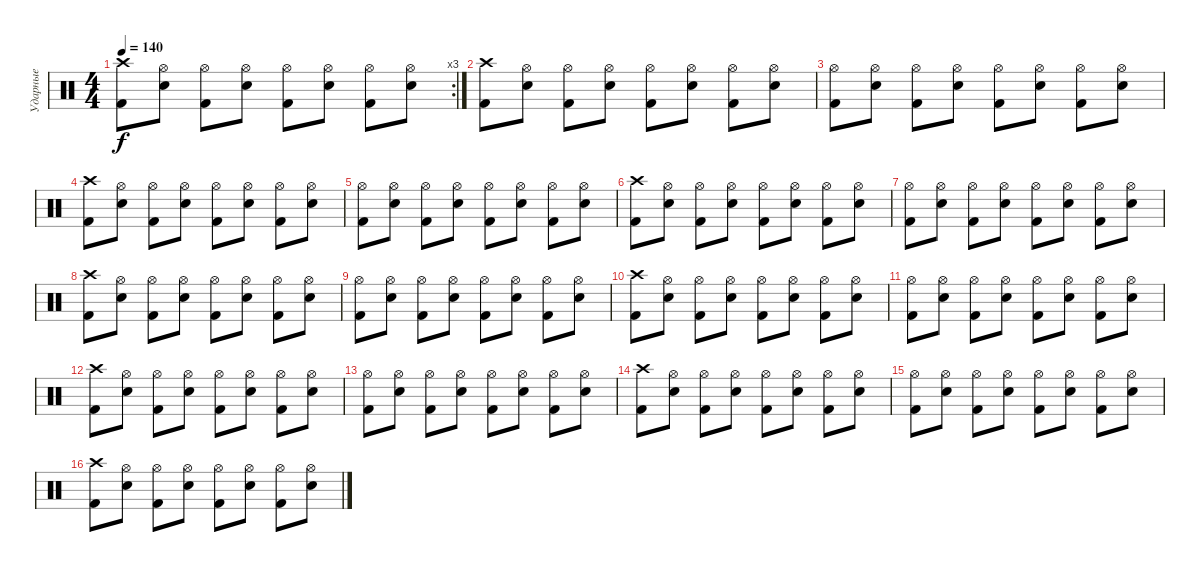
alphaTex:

\track ("Ударные" "Ударные") {instrument percussion}
\staff {score}
\articulation defaults
\rc 3
\ts (4 4)
\tempo 140
\clef neutral
\ks c
("Kick (hit) 2" "Crash high (hit)").8{dy f} ("Electric Snare (hit)" "Hi-Hat (open)").8 ("Kick (hit) 2" "Hi-Hat (open)").8 ("Electric Snare (hit)" "Hi-Hat (open)").8 ("Kick (hit) 2" "Hi-Hat (open)").8 ("Electric Snare (hit)" "Hi-Hat (open)").8 ("Kick (hit) 2" "Hi-Hat (open)").8 ("Electric Snare (hit)" "Hi-Hat (open)").8 |
("Kick (hit) 2" "Crash high (hit)").8 ("Electric Snare (hit)" "Hi-Hat (open)").8 ("Kick (hit) 2" "Hi-Hat (open)").8 ("Electric Snare (hit)" "Hi-Hat (open)").8 ("Kick (hit) 2" "Hi-Hat (open)").8 ("Electric Snare (hit)" "Hi-Hat (open)").8 ("Kick (hit) 2" "Hi-Hat (open)").8 ("Electric Snare (hit)" "Hi-Hat (open)").8 |
("Kick (hit) 2" "Hi-Hat (open)").8 ("Electric Snare (hit)" "Hi-Hat (open)").8 ("Kick (hit) 2" "Hi-Hat (open)").8 ("Electric Snare (hit)" "Hi-Hat (open)").8 ("Kick (hit) 2" "Hi-Hat (open)").8 ("Electric Snare (hit)" "Hi-Hat (open)").8 ("Kick (hit) 2" "Hi-Hat (open)").8 ("Electric Snare (hit)" "Hi-Hat (open)").8 |
("Kick (hit) 2" "Crash high (hit)").8 ("Electric Snare (hit)" "Hi-Hat (open)").8 ("Kick (hit) 2" "Hi-Hat (open)").8 ("Electric Snare (hit)" "Hi-Hat (open)").8 ("Kick (hit) 2" "Hi-Hat (open)").8 ("Electric Snare (hit)" "Hi-Hat (open)").8 ("Kick (hit) 2" "Hi-Hat (open)").8 ("Electric Snare (hit)" "Hi-Hat (open)").8 |
("Kick (hit) 2" "Hi-Hat (open)").8 ("Electric Snare (hit)" "Hi-Hat (open)").8 ("Kick (hit) 2" "Hi-Hat (open)").8 ("Electric Snare (hit)" "Hi-Hat (open)").8 ("Kick (hit) 2" "Hi-Hat (open)").8 ("Electric Snare (hit)" "Hi-Hat (open)").8 ("Kick (hit) 2" "Hi-Hat (open)").8 ("Electric Snare (hit)" "Hi-Hat (open)").8 |
("Kick (hit) 2" "Crash high (hit)").8 ("Electric Snare (hit)" "Hi-Hat (open)").8 ("Kick (hit) 2" "Hi-Hat (open)").8 ("Electric Snare (hit)" "Hi-Hat (open)").8 ("Kick (hit) 2" "Hi-Hat (open)").8 ("Electric Snare (hit)" "Hi-Hat (open)").8 ("Kick (hit) 2" "Hi-Hat (open)").8 ("Electric Snare (hit)" "Hi-Hat (open)").8 |
("Kick (hit) 2" "Hi-Hat (open)").8 ("Electric Snare (hit)" "Hi-Hat (open)").8 ("Kick (hit) 2" "Hi-Hat (open)").8 ("Electric Snare (hit)" "Hi-Hat (open)").8 ("Kick (hit) 2" "Hi-Hat (open)").8 ("Electric Snare (hit)" "Hi-Hat (open)").8 ("Kick (hit) 2" "Hi-Hat (open)").8 ("Electric Snare (hit)" "Hi-Hat (open)").8 |
("Kick (hit) 2" "Crash high (hit)").8 ("Electric Snare (hit)" "Hi-Hat (open)").8 ("Kick (hit) 2" "Hi-Hat (open)").8 ("Electric Snare (hit)" "Hi-Hat (open)").8 ("Kick (hit) 2" "Hi-Hat (open)").8 ("Electric Snare (hit)" "Hi-Hat (open)").8 ("Kick (hit) 2" "Hi-Hat (open)").8 ("Electric Snare (hit)" "Hi-Hat (open)").8 |
("Kick (hit) 2" "Hi-Hat (open)").8 ("Electric Snare (hit)" "Hi-Hat (open)").8 ("Kick (hit) 2" "Hi-Hat (open)").8 ("Electric Snare (hit)" "Hi-Hat (open)").8 ("Kick (hit) 2" "Hi-Hat (open)").8 ("Electric Snare (hit)" "Hi-Hat (open)").8 ("Kick (hit) 2" "Hi-Hat (open)").8 ("Electric Snare (hit)" "Hi-Hat (open)").8 |
("Kick (hit) 2" "Crash high (hit)").8 ("Electric Snare (hit)" "Hi-Hat (open)").8 ("Kick (hit) 2" "Hi-Hat (open)").8 ("Electric Snare (hit)" "Hi-Hat (open)").8 ("Kick (hit) 2" "Hi-Hat (open)").8 ("Electric Snare (hit)" "Hi-Hat (open)").8 ("Kick (hit) 2" "Hi-Hat (open)").8 ("Electric Snare (hit)" "Hi-Hat (open)").8 |
("Kick (hit) 2" "Hi-Hat (open)").8 ("Electric Snare (hit)" "Hi-Hat (open)").8 ("Kick (hit) 2" "Hi-Hat (open)").8 ("Electric Snare (hit)" "Hi-Hat (open)").8 ("Kick (hit) 2" "Hi-Hat (open)").8 ("Electric Snare (hit)" "Hi-Hat (open)").8 ("Kick (hit) 2" "Hi-Hat (open)").8 ("Electric Snare (hit)" "Hi-Hat (open)").8 |
("Kick (hit) 2" "Crash high (hit)").8 ("Electric Snare (hit)" "Hi-Hat (open)").8 ("Kick (hit) 2" "Hi-Hat (open)").8 ("Electric Snare (hit)" "Hi-Hat (open)").8 ("Kick (hit) 2" "Hi-Hat (open)").8 ("Electric Snare (hit)" "Hi-Hat (open)").8 ("Kick (hit) 2" "Hi-Hat (open)").8 ("Electric Snare (hit)" "Hi-Hat (open)").8 |
("Kick (hit) 2" "Hi-Hat (open)").8 ("Electric Snare (hit)" "Hi-Hat (open)").8 ("Kick (hit) 2" "Hi-Hat (open)").8 ("Electric Snare (hit)" "Hi-Hat (open)").8 ("Kick (hit) 2" "Hi-Hat (open)").8 ("Electric Snare (hit)" "Hi-Hat (open)").8 ("Kick (hit) 2" "Hi-Hat (open)").8 ("Electric Snare (hit)" "Hi-Hat (open)").8 |
("Kick (hit) 2" "Crash high (hit)").8 ("Electric Snare (hit)" "Hi-Hat (open)").8 ("Kick (hit) 2" "Hi-Hat (open)").8 ("Electric Snare (hit)" "Hi-Hat (open)").8 ("Kick (hit) 2" "Hi-Hat (open)").8 ("Electric Snare (hit)" "Hi-Hat (open)").8 ("Kick (hit) 2" "Hi-Hat (open)").8 ("Electric Snare (hit)" "Hi-Hat (open)").8 |
("Kick (hit) 2" "Hi-Hat (open)").8 ("Electric Snare (hit)" "Hi-Hat (open)").8 ("Kick (hit) 2" "Hi-Hat (open)").8 ("Electric Snare (hit)" "Hi-Hat (open)").8 ("Kick (hit) 2" "Hi-Hat (open)").8 ("Electric Snare (hit)" "Hi-Hat (open)").8 ("Kick (hit) 2" "Hi-Hat (open)").8 ("Electric Snare (hit)" "Hi-Hat (open)").8 |
("Kick (hit) 2" "Crash high (hit)").8 ("Electric Snare (hit)" "Hi-Hat (open)").8 ("Kick (hit) 2" "Hi-Hat (open)").8 ("Electric Snare (hit)" "Hi-Hat (open)").8 ("Kick (hit) 2" "Hi-Hat (open)").8 ("Electric Snare (hit)" "Hi-Hat (open)").8 ("Kick (hit) 2" "Hi-Hat (open)").8 ("Electric Snare (hit)" "Hi-Hat (open)").8
